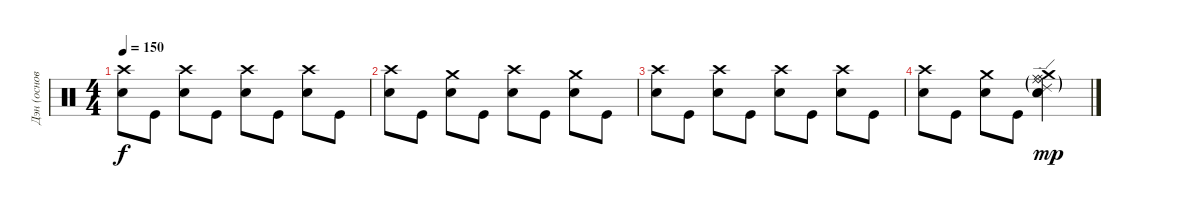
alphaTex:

\track ("Дэн (основа)" "Дэн (основ") {instrument percussion}
\staff {score}
\articulation defaults
\ts (4 4)
\tempo 150
\clef neutral
\ks c
("Crash high (hit)" "Electric Snare (hit)").8{dy f} "Kick (hit)".8 ("Crash high (hit)" "Electric Snare (hit)").8 "Kick (hit)".8 ("Crash high (hit)" "Electric Snare (hit)").8 "Kick (hit)".8 ("Crash high (hit)" "Electric Snare (hit)").8 "Kick (hit)".8 |
("Crash high (hit)" "Electric Snare (hit)").8 "Kick (hit)".8 ("Crash medium (hit)" "Electric Snare (hit)").8 "Kick (hit)".8 ("Crash high (hit)" "Electric Snare (hit)").8 "Kick (hit)".8 ("Crash medium (hit)" "Electric Snare (hit)").8 "Kick (hit)".8 |
("Crash high (hit)" "Electric Snare (hit)").8 "Kick (hit)".8 ("Crash high (hit)" "Electric Snare (hit)").8 "Kick (hit)".8 ("Crash high (hit)" "Electric Snare (hit)").8 "Kick (hit)".8 ("Crash high (hit)" "Electric Snare (hit)").8 "Kick (hit)".8 |
("Crash high (hit)" "Electric Snare (hit)").8 "Kick (hit)".8 ("Crash medium (hit)" "Electric Snare (hit)").8 "Kick (hit)".8 ("Crash medium (hit)" "Ride (bell)"{g} "Ride (edge) 2"{g} "Ride (middle)"{g} "Metronome (bell)" "Electric Snare (hit)").2{dy mp}
